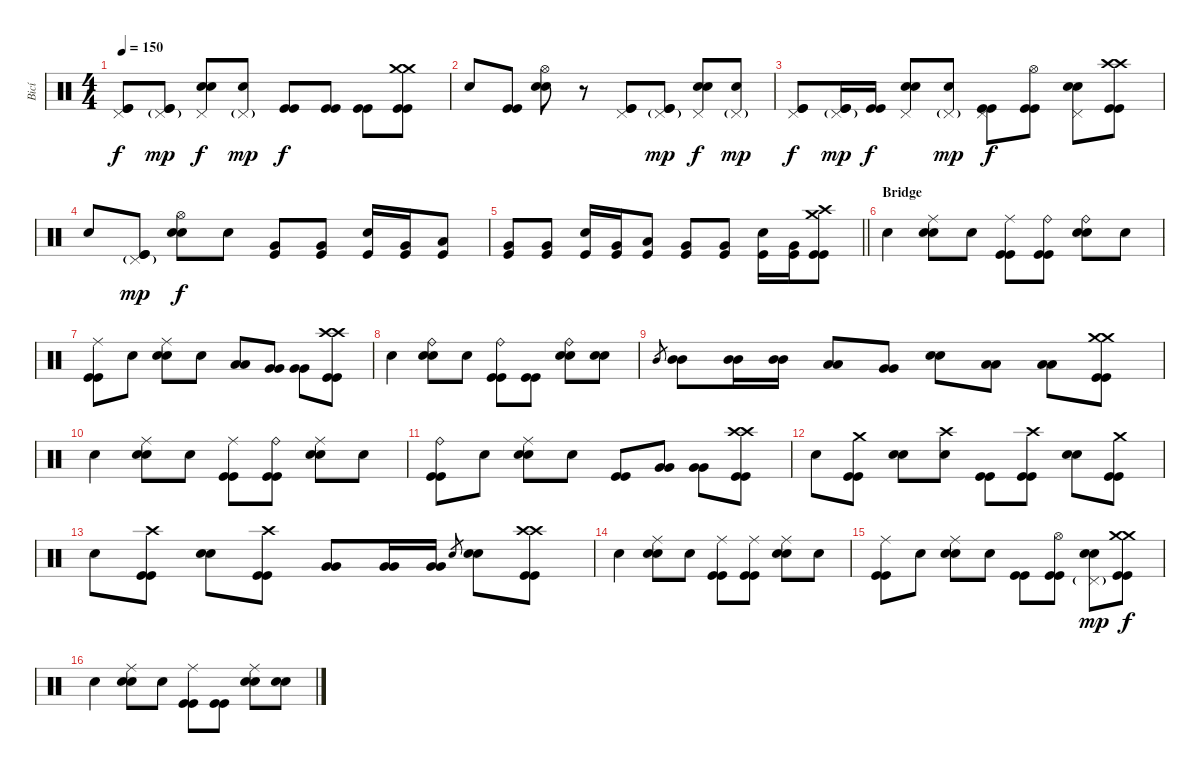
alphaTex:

\track ("Bicí" "Bicí") {instrument percussion}
\staff {score}
\articulation defaults
\ts (4 4)
\tempo 150
\clef neutral
\ks c
("Pedal Hi-Hat (hit)" "Kick (hit)" "Kick (hit)").8{dy f} ("Pedal Hi-Hat (hit)"{g} "Kick (hit)" "Kick (hit)").8{dy mp} ("Pedal Hi-Hat (hit)" "Electric Snare (hit)" "Electric Snare (hit)").8{dy f} ("Pedal Hi-Hat (hit)"{g} "Snare (hit)").8{dy mp} ("Kick (hit)" "Kick (hit)").8{dy f} ("Kick (hit)" "Kick (hit)").8 ("Kick (hit)" "Kick (hit)").8 ("Crash medium (hit)" "Crash medium (hit)" "Kick (hit)" "Kick (hit)").8 |
"Snare (hit)".8 ("Kick (hit)" "Kick (hit)").8 ("Hi-Hat (open)" "Electric Snare (hit)" "Electric Snare (hit)").8 r.8 ("Pedal Hi-Hat (hit)" "Kick (hit)" "Kick (hit)").8 ("Pedal Hi-Hat (hit)"{g} "Kick (hit)" "Kick (hit)").8{dy mp} ("Pedal Hi-Hat (hit)" "Electric Snare (hit)" "Electric Snare (hit)").8{dy f} ("Pedal Hi-Hat (hit)"{g} "Snare (hit)").8{dy mp} |
("Pedal Hi-Hat (hit)" "Kick (hit)" "Kick (hit)").8{dy f} ("Pedal Hi-Hat (hit)"{g} "Kick (hit)" "Kick (hit)").16{dy mp} ("Kick (hit)" "Kick (hit)").16{dy f} ("Pedal Hi-Hat (hit)" "Electric Snare (hit)" "Electric Snare (hit)").8 ("Pedal Hi-Hat (hit)"{g} "Snare (hit)").8{dy mp} ("Pedal Hi-Hat (hit)" "Kick (hit)" "Kick (hit)").8{dy f} ("Hi-Hat (open)" "Kick (hit)" "Kick (hit)").8 ("Pedal Hi-Hat (hit)" "Electric Snare (hit)" "Electric Snare (hit)").8 ("Crash high (hit)" "Crash high (hit)" "Kick (hit)" "Kick (hit)").8 |
"Snare (hit)".8 ("Pedal Hi-Hat (hit)"{g} "Kick (hit)" "Kick (hit)").8{dy mp} ("Hi-Hat (open)" "Electric Snare (hit)" "Electric Snare (hit)").8{dy f} "Snare (hit)".8 ("Very Low Tom (hit)" "Kick (hit)").8 ("Very Low Tom (hit)" "Kick (hit)").8 ("Electric Snare (hit)" "Kick (hit)").16 ("Very Low Tom (hit)" "Kick (hit)").16 ("Low Floor Tom (hit)" "Kick (hit)").8 |
\barLineRight lightlight
("Very Low Tom (hit)" "Kick (hit)").8 ("Very Low Tom (hit)" "Kick (hit)").8 ("Electric Snare (hit)" "Kick (hit)").16 ("Very Low Tom (hit)" "Kick (hit)").16 ("Low Floor Tom (hit)" "Kick (hit)").8 ("Very Low Tom (hit)" "Kick (hit)").8 ("Very Low Tom (hit)" "Kick (hit)").8 ("Electric Snare (hit)" "Kick (hit)").16 ("Very Low Tom (hit)" "Kick (hit)").16 ("Crash high (hit)" "Crash medium (hit)" "Kick (hit)" "Kick (hit)").8 |
\section ("" "Bridge")
"Snare (hit)".4 ("Ride (middle)" "Electric Snare (hit)" "Electric Snare (hit)").8 "Snare (hit)".8 ("Ride (middle)" "Kick (hit)" "Kick (hit)").8 ("Ride (bell)" "Kick (hit)" "Kick (hit)").8 ("Ride (bell)" "Electric Snare (hit)" "Electric Snare (hit)").8 "Snare (hit)".8 |
("Ride (middle)" "Kick (hit)" "Kick (hit)").8 "Snare (hit)".8 ("Ride (middle)" "Electric Snare (hit)" "Electric Snare (hit)").8 "Snare (hit)".8 ("Low Tom (hit)" "Low Tom (hit)").8 ("Very Low Tom (hit)" "Very Low Tom (hit)").8 ("Very Low Tom (hit)" "Very Low Tom (hit)").8 ("Crash high (hit)" "Crash high (hit)" "Kick (hit)" "Kick (hit)").8 |
"Snare (hit)".4 ("Ride (bell)" "Electric Snare (hit)" "Electric Snare (hit)").8 "Snare (hit)".8 ("Ride (bell)" "Kick (hit)" "Kick (hit)").8 ("Kick (hit)" "Kick (hit)").8 ("Ride (bell)" "Electric Snare (hit)" "Electric Snare (hit)").8 ("Snare (hit)" "Snare (hit)").8 |
"Mid Tom (hit)".8{gr} ("Mid Tom (hit)" "Mid Tom (hit)").8 ("Mid Tom (hit)" "Mid Tom (hit)").16 ("Mid Tom (hit)" "Mid Tom (hit)").16 ("Low Tom (hit)" "Low Tom (hit)").8 ("Very Low Tom (hit)" "Very Low Tom (hit)").8 ("Electric Snare (hit)" "Electric Snare (hit)").8 ("Low Floor Tom (hit)" "Low Floor Tom (hit)").8 ("Low Floor Tom (hit)" "Low Floor Tom (hit)").8 ("Crash medium (hit)" "Crash medium (hit)" "Kick (hit)" "Kick (hit)").8 |
"Snare (hit)".4 ("Ride (middle)" "Electric Snare (hit)" "Electric Snare (hit)").8 "Snare (hit)".8 ("Ride (middle)" "Kick (hit)" "Kick (hit)").8 ("Ride (bell)" "Kick (hit)" "Kick (hit)").8 ("Ride (middle)" "Electric Snare (hit)" "Electric Snare (hit)").8 "Snare (hit)".8 |
("Ride (bell)" "Kick (hit)" "Kick (hit)").8 "Snare (hit)".8 ("Ride (middle)" "Electric Snare (hit)" "Electric Snare (hit)").8 "Snare (hit)".8 ("Kick (hit)" "Kick (hit)").8 ("Very Low Tom (hit)" "Very Low Tom (hit)").8 ("Very Low Tom (hit)" "Very Low Tom (hit)").8 ("Crash high (hit)" "Crash high (hit)" "Kick (hit)" "Kick (hit)").8 |
"Snare (hit)".8 ("Crash medium (hit)" "Kick (hit)" "Kick (hit)").8 ("Electric Snare (hit)" "Electric Snare (hit)").8 ("Crash high (hit)" "Snare (hit)").8 ("Kick (hit)" "Kick (hit)").8 ("Crash high (hit)" "Kick (hit)" "Kick (hit)").8 ("Electric Snare (hit)" "Electric Snare (hit)").8 ("Crash medium (hit)" "Kick (hit)" "Kick (hit)").8 |
"Snare (hit)".8 ("Crash high (hit)" "Kick (hit)" "Kick (hit)").8 ("Electric Snare (hit)" "Electric Snare (hit)").8 ("Crash high (hit)" "Kick (hit)" "Kick (hit)").8 ("Very Low Tom (hit)" "Very Low Tom (hit)").8 ("Very Low Tom (hit)" "Very Low Tom (hit)").16 ("Very Low Tom (hit)" "Very Low Tom (hit)").16 "Electric Snare (hit)".8{gr} ("Electric Snare (hit)" "Electric Snare (hit)").8 ("Crash high (hit)" "Crash high (hit)" "Kick (hit)" "Kick (hit)").8 |
"Snare (hit)".4 ("Ride (middle)" "Electric Snare (hit)" "Electric Snare (hit)").8 "Snare (hit)".8 ("Ride (middle)" "Kick (hit)" "Kick (hit)").8 ("Ride (middle)" "Kick (hit)" "Kick (hit)").8 ("Ride (middle)" "Electric Snare (hit)" "Electric Snare (hit)").8 "Snare (hit)".8 |
("Ride (middle)" "Kick (hit)" "Kick (hit)").8 "Snare (hit)".8 ("Ride (middle)" "Electric Snare (hit)" "Electric Snare (hit)").8 "Snare (hit)".8 ("Kick (hit)" "Kick (hit)").8 ("Hi-Hat (open)" "Kick (hit)" "Kick (hit)").8 ("Pedal Hi-Hat (hit)"{g} "Electric Snare (hit)" "Electric Snare (hit)").8{dy mp} ("Crash medium (hit)" "Crash medium (hit)" "Kick (hit)" "Kick (hit)").8{dy f} |
"Snare (hit)".4 ("Ride (middle)" "Electric Snare (hit)" "Electric Snare (hit)").8 "Snare (hit)".8 ("Ride (middle)" "Kick (hit)" "Kick (hit)").8 ("Kick (hit)" "Kick (hit)").8 ("Ride (middle)" "Electric Snare (hit)" "Electric Snare (hit)").8 ("Snare (hit)" "Snare (hit)").8
